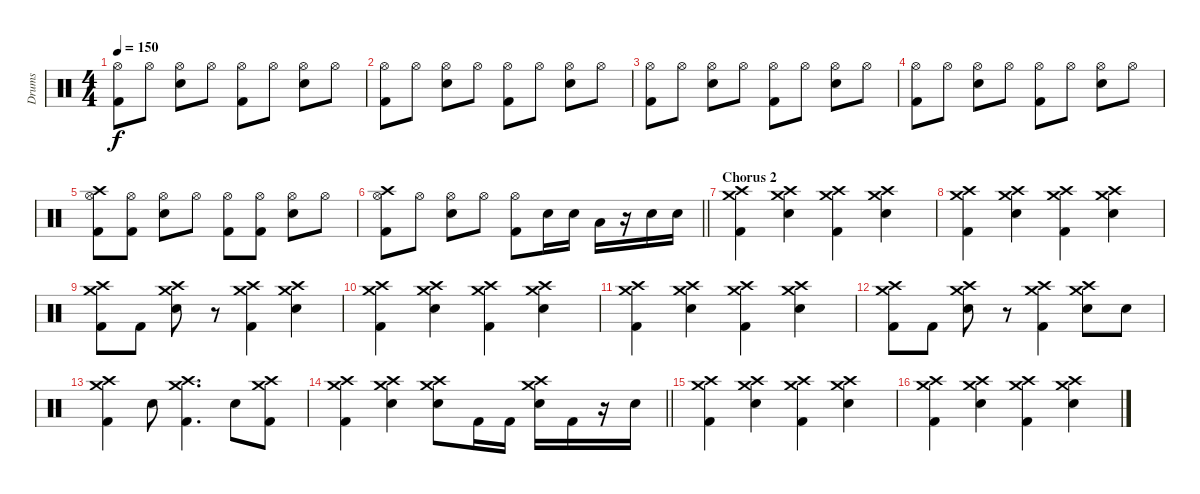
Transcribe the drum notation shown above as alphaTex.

\track ("Drums" "Drums") {instrument percussion}
\staff {score}
\articulation defaults
\ts (4 4)
\tempo 150
\clef neutral
\ks c
("Hi-Hat (open)" "Kick (hit) 2").8{dy f} "Hi-Hat (open)".8 ("Hi-Hat (open)" "Electric Snare (hit)").8 "Hi-Hat (open)".8 ("Hi-Hat (open)" "Kick (hit) 2").8 "Hi-Hat (open)".8 ("Hi-Hat (open)" "Electric Snare (hit)").8 "Hi-Hat (open)".8 |
("Hi-Hat (open)" "Kick (hit) 2").8 "Hi-Hat (open)".8 ("Hi-Hat (open)" "Electric Snare (hit)").8 "Hi-Hat (open)".8 ("Hi-Hat (open)" "Kick (hit) 2").8 "Hi-Hat (open)".8 ("Hi-Hat (open)" "Electric Snare (hit)").8 "Hi-Hat (open)".8 |
("Hi-Hat (open)" "Kick (hit) 2").8 "Hi-Hat (open)".8 ("Hi-Hat (open)" "Electric Snare (hit)").8 "Hi-Hat (open)".8 ("Hi-Hat (open)" "Kick (hit) 2").8 "Hi-Hat (open)".8 ("Hi-Hat (open)" "Electric Snare (hit)").8 "Hi-Hat (open)".8 |
("Hi-Hat (open)" "Kick (hit) 2").8 "Hi-Hat (open)".8 ("Hi-Hat (open)" "Electric Snare (hit)").8 "Hi-Hat (open)".8 ("Hi-Hat (open)" "Kick (hit) 2").8 "Hi-Hat (open)".8 ("Hi-Hat (open)" "Electric Snare (hit)").8 "Hi-Hat (open)".8 |
("Hi-Hat (open)" "Crash high (hit)" "Kick (hit) 2").8 ("Hi-Hat (open)" "Kick (hit) 2").8 ("Hi-Hat (open)" "Electric Snare (hit)").8 "Hi-Hat (open)".8 ("Hi-Hat (open)" "Kick (hit) 2").8 ("Hi-Hat (open)" "Kick (hit) 2").8 ("Hi-Hat (open)" "Electric Snare (hit)").8 "Hi-Hat (open)".8 |
\barLineRight lightlight
("Hi-Hat (open)" "Crash high (hit)" "Kick (hit) 2").8 "Hi-Hat (open)".8 ("Hi-Hat (open)" "Electric Snare (hit)").8 "Hi-Hat (open)".8 ("Hi-Hat (open)" "Kick (hit) 2").8 "Electric Snare (hit)".16 "Electric Snare (hit)".16 "Low Tom (hit)".16 r.16 "Electric Snare (hit)".16 "Electric Snare (hit)".16 |
\section ("" "Chorus 2")
("Crash medium (hit)" "Crash high (hit)" "Kick (hit) 2").4 ("Crash medium (hit)" "Crash high (hit)" "Electric Snare (hit)").4 ("Crash medium (hit)" "Crash high (hit)" "Kick (hit) 2").4 ("Crash medium (hit)" "Crash high (hit)" "Electric Snare (hit)").4 |
("Crash medium (hit)" "Crash high (hit)" "Kick (hit) 2").4 ("Crash medium (hit)" "Crash high (hit)" "Electric Snare (hit)").4 ("Crash medium (hit)" "Crash high (hit)" "Kick (hit) 2").4 ("Crash medium (hit)" "Crash high (hit)" "Electric Snare (hit)").4 |
("Crash medium (hit)" "Crash high (hit)" "Kick (hit) 2").8 "Kick (hit) 2".8 ("Crash medium (hit)" "Crash high (hit)" "Electric Snare (hit)").8 r.8 ("Crash medium (hit)" "Crash high (hit)" "Kick (hit) 2").4 ("Crash medium (hit)" "Crash high (hit)" "Electric Snare (hit)").4 |
("Crash medium (hit)" "Crash high (hit)" "Kick (hit) 2").4 ("Crash medium (hit)" "Crash high (hit)" "Electric Snare (hit)").4 ("Crash medium (hit)" "Crash high (hit)" "Kick (hit) 2").4 ("Crash medium (hit)" "Crash high (hit)" "Electric Snare (hit)").4 |
("Crash medium (hit)" "Crash high (hit)" "Kick (hit) 2").4 ("Crash medium (hit)" "Crash high (hit)" "Electric Snare (hit)").4 ("Crash medium (hit)" "Crash high (hit)" "Kick (hit) 2").4 ("Crash medium (hit)" "Crash high (hit)" "Electric Snare (hit)").4 |
("Crash medium (hit)" "Crash high (hit)" "Kick (hit) 2").8 "Kick (hit) 2".8 ("Crash medium (hit)" "Crash high (hit)" "Electric Snare (hit)").8 r.8 ("Crash medium (hit)" "Crash high (hit)" "Kick (hit) 2").4 ("Crash medium (hit)" "Crash high (hit)" "Electric Snare (hit)").8 "Electric Snare (hit)".8 |
("Crash medium (hit)" "Crash high (hit)" "Kick (hit) 2").4 "Electric Snare (hit)".8 ("Crash medium (hit)" "Crash high (hit)" "Kick (hit) 2").4{d} "Electric Snare (hit)".8 ("Crash medium (hit)" "Crash high (hit)" "Kick (hit) 2").8 |
\barLineRight lightlight
("Crash medium (hit)" "Crash high (hit)" "Kick (hit) 2").4 ("Crash medium (hit)" "Crash high (hit)" "Electric Snare (hit)").4 ("Crash medium (hit)" "Crash high (hit)" "Electric Snare (hit)").8 "Kick (hit) 2".16 "Kick (hit) 2".16 ("Crash medium (hit)" "Crash high (hit)" "Electric Snare (hit)").16 "Kick (hit) 2".16 r.16 "Electric Snare (hit)".16 |
("Crash medium (hit)" "Crash high (hit)" "Kick (hit) 2").4 ("Crash medium (hit)" "Crash high (hit)" "Electric Snare (hit)").4 ("Crash medium (hit)" "Crash high (hit)" "Kick (hit) 2").4 ("Crash medium (hit)" "Crash high (hit)" "Electric Snare (hit)").4 |
("Crash medium (hit)" "Crash high (hit)" "Kick (hit) 2").4 ("Crash medium (hit)" "Crash high (hit)" "Electric Snare (hit)").4 ("Crash medium (hit)" "Crash high (hit)" "Kick (hit) 2").4 ("Crash medium (hit)" "Crash high (hit)" "Electric Snare (hit)").4
